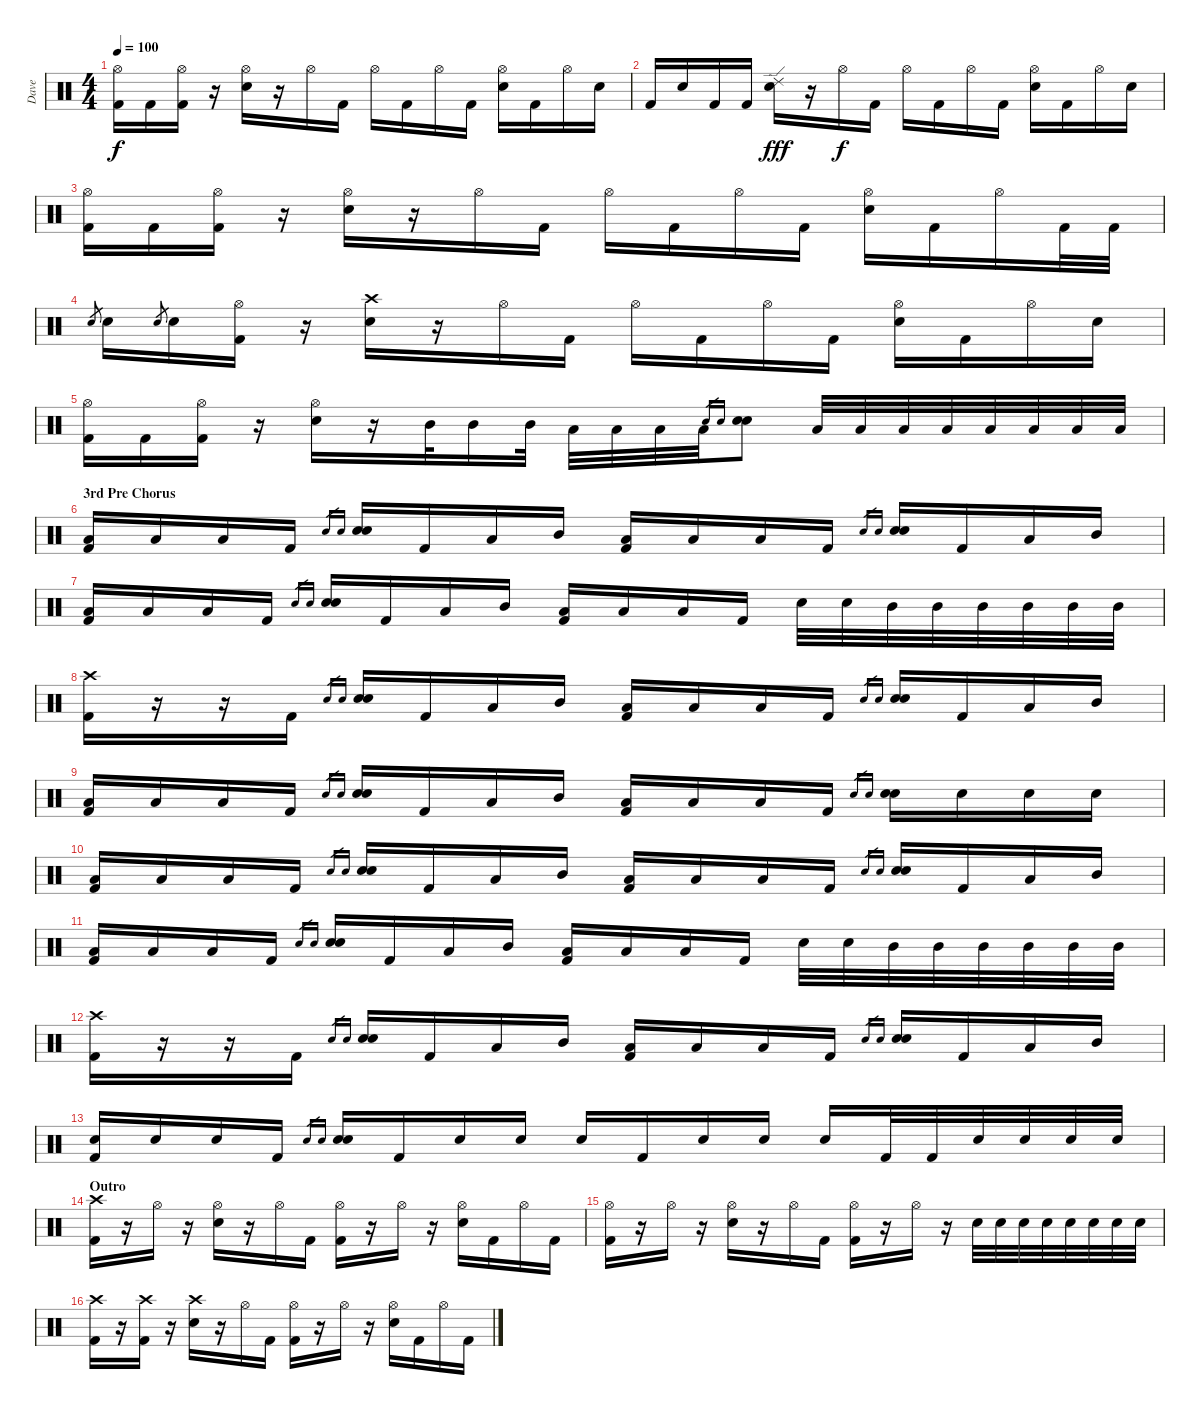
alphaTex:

\track ("Dave" "Dave") {instrument percussion}
\staff {score}
\articulation defaults
\ts (4 4)
\tempo 100
\clef neutral
\ks c
("Hi-Hat (open)" "Kick (hit) 2").16{dy f} "Kick (hit) 2".16 ("Hi-Hat (open)" "Kick (hit) 2").16 r.16 ("Hi-Hat (open)" "Electric Snare (hit)").16 r.16 "Hi-Hat (open)".16 "Kick (hit) 2".16 "Hi-Hat (open)".16 "Kick (hit) 2".16 "Hi-Hat (open)".16 "Kick (hit) 2".16 ("Hi-Hat (open)" "Electric Snare (hit)").16 "Kick (hit) 2".16 "Hi-Hat (open)".16 "Electric Snare (hit)".16 |
"Kick (hit) 2".16 "Electric Snare (hit)".16 "Kick (hit) 2".16 "Kick (hit) 2".16 ("Ride (edge) 2" "Electric Snare (hit)").16{dy fff} r.16 "Hi-Hat (open)".16{dy f} "Kick (hit) 2".16 "Hi-Hat (open)".16 "Kick (hit) 2".16 "Hi-Hat (open)".16 "Kick (hit) 2".16 ("Hi-Hat (open)" "Electric Snare (hit)").16 "Kick (hit) 2".16 "Hi-Hat (open)".16 "Electric Snare (hit)".16 |
("Hi-Hat (open)" "Kick (hit) 2").16 "Kick (hit) 2".16 ("Hi-Hat (open)" "Kick (hit) 2").16 r.16 ("Hi-Hat (open)" "Electric Snare (hit)").16 r.16 "Hi-Hat (open)".16 "Kick (hit) 2".16 "Hi-Hat (open)".16 "Kick (hit) 2".16 "Hi-Hat (open)".16 "Kick (hit) 2".16 ("Hi-Hat (open)" "Electric Snare (hit)").16 "Kick (hit) 2".16 "Hi-Hat (open)".16 "Kick (hit) 2".32 "Kick (hit) 2".32 |
"Electric Snare (hit)".8{gr} "Electric Snare (hit)".16 "Electric Snare (hit)".8{gr} "Electric Snare (hit)".16 ("Hi-Hat (open)" "Kick (hit) 2").16 r.16 ("Crash high (hit)" "Electric Snare (hit)").16 r.16 "Hi-Hat (open)".16 "Kick (hit) 2".16 "Hi-Hat (open)".16 "Kick (hit) 2".16 "Hi-Hat (open)".16 "Kick (hit) 2".16 ("Hi-Hat (open)" "Electric Snare (hit)").16 "Kick (hit) 2".16 "Hi-Hat (open)".16 "Electric Snare (hit)".16 |
("Hi-Hat (open)" "Kick (hit) 2").16 "Kick (hit) 2".16 ("Hi-Hat (open)" "Kick (hit) 2").16 r.16 ("Hi-Hat (open)" "Electric Snare (hit)").16 r.16 "Mid Tom (hit)".32 "Mid Tom (hit)".16 "Mid Tom (hit)".32 "Low Tom (hit)".32 "Low Tom (hit)".32 "Low Tom (hit)".32 "Low Tom (hit)".32 "Electric Snare (hit)".16{gr} "Electric Snare (hit)".16{gr} ("Electric Snare (hit)" "Electric Snare (hit)").8 "Low Tom (hit)".32 "Low Tom (hit)".32 "Low Tom (hit)".32 "Low Tom (hit)".32 "Low Floor Tom (hit)".32 "Low Floor Tom (hit)".32 "Low Floor Tom (hit)".32 "Low Floor Tom (hit)".32 |
\section ("" "3rd Pre Chorus")
("Low Floor Tom (hit)" "Kick (hit) 2").16 "Low Floor Tom (hit)".16 "Low Floor Tom (hit)".16 "Kick (hit) 2".16 "Electric Snare (hit)".16{gr} "Electric Snare (hit)".16{gr} ("Electric Snare (hit)" "Electric Snare (hit)").16 "Kick (hit) 2".16 "Low Floor Tom (hit)".16 "Mid Tom (hit)".16 ("Low Floor Tom (hit)" "Kick (hit) 2").16 "Low Floor Tom (hit)".16 "Low Floor Tom (hit)".16 "Kick (hit) 2".16 "Electric Snare (hit)".16{gr} "Electric Snare (hit)".16{gr} ("Electric Snare (hit)" "Electric Snare (hit)").16 "Kick (hit) 2".16 "Low Floor Tom (hit)".16 "Mid Tom (hit)".16 |
("Low Floor Tom (hit)" "Kick (hit) 2").16 "Low Floor Tom (hit)".16 "Low Floor Tom (hit)".16 "Kick (hit) 2".16 "Electric Snare (hit)".16{gr} "Electric Snare (hit)".16{gr} ("Electric Snare (hit)" "Electric Snare (hit)").16 "Kick (hit) 2".16 "Low Floor Tom (hit)".16 "Mid Tom (hit)".16 ("Low Floor Tom (hit)" "Kick (hit) 2").16 "Low Floor Tom (hit)".16 "Low Floor Tom (hit)".16 "Kick (hit) 2".16 "Electric Snare (hit)".32 "Electric Snare (hit)".32 "Mid Tom (hit)".32 "Mid Tom (hit)".32 "Mid Tom (hit)".32 "Mid Tom (hit)".32 "Mid Tom (hit)".32 "Mid Tom (hit)".32 |
("Crash high (hit)" "Kick (hit) 2").16 r.16 r.16 "Kick (hit) 2".16 "Electric Snare (hit)".16{gr} "Electric Snare (hit)".16{gr} ("Electric Snare (hit)" "Electric Snare (hit)").16 "Kick (hit) 2".16 "Low Floor Tom (hit)".16 "Mid Tom (hit)".16 ("Low Floor Tom (hit)" "Kick (hit) 2").16 "Low Floor Tom (hit)".16 "Low Floor Tom (hit)".16 "Kick (hit) 2".16 "Electric Snare (hit)".16{gr} "Electric Snare (hit)".16{gr} ("Electric Snare (hit)" "Electric Snare (hit)").16 "Kick (hit) 2".16 "Low Floor Tom (hit)".16 "Mid Tom (hit)".16 |
("Low Floor Tom (hit)" "Kick (hit) 2").16 "Low Floor Tom (hit)".16 "Low Floor Tom (hit)".16 "Kick (hit) 2".16 "Electric Snare (hit)".16{gr} "Electric Snare (hit)".16{gr} ("Electric Snare (hit)" "Electric Snare (hit)").16 "Kick (hit) 2".16 "Low Floor Tom (hit)".16 "Mid Tom (hit)".16 ("Low Floor Tom (hit)" "Kick (hit) 2").16 "Low Floor Tom (hit)".16 "Low Floor Tom (hit)".16 "Kick (hit) 2".16 "Electric Snare (hit)".16{gr} "Electric Snare (hit)".16{gr} ("Electric Snare (hit)" "Electric Snare (hit)").16 "Electric Snare (hit)".16 "Electric Snare (hit)".16 "Electric Snare (hit)".16 |
("Low Floor Tom (hit)" "Kick (hit) 2").16 "Low Floor Tom (hit)".16 "Low Floor Tom (hit)".16 "Kick (hit) 2".16 "Electric Snare (hit)".16{gr} "Electric Snare (hit)".16{gr} ("Electric Snare (hit)" "Electric Snare (hit)").16 "Kick (hit) 2".16 "Low Floor Tom (hit)".16 "Mid Tom (hit)".16 ("Low Floor Tom (hit)" "Kick (hit) 2").16 "Low Floor Tom (hit)".16 "Low Floor Tom (hit)".16 "Kick (hit) 2".16 "Electric Snare (hit)".16{gr} "Electric Snare (hit)".16{gr} ("Electric Snare (hit)" "Electric Snare (hit)").16 "Kick (hit) 2".16 "Low Floor Tom (hit)".16 "Mid Tom (hit)".16 |
("Low Floor Tom (hit)" "Kick (hit) 2").16 "Low Floor Tom (hit)".16 "Low Floor Tom (hit)".16 "Kick (hit) 2".16 "Electric Snare (hit)".16{gr} "Electric Snare (hit)".16{gr} ("Electric Snare (hit)" "Electric Snare (hit)").16 "Kick (hit) 2".16 "Low Floor Tom (hit)".16 "Mid Tom (hit)".16 ("Low Floor Tom (hit)" "Kick (hit) 2").16 "Low Floor Tom (hit)".16 "Low Floor Tom (hit)".16 "Kick (hit) 2".16 "Electric Snare (hit)".32 "Electric Snare (hit)".32 "Mid Tom (hit)".32 "Mid Tom (hit)".32 "Mid Tom (hit)".32 "Mid Tom (hit)".32 "Mid Tom (hit)".32 "Mid Tom (hit)".32 |
("Crash high (hit)" "Kick (hit) 2").16 r.16 r.16 "Kick (hit) 2".16 "Electric Snare (hit)".16{gr} "Electric Snare (hit)".16{gr} ("Electric Snare (hit)" "Electric Snare (hit)").16 "Kick (hit) 2".16 "Low Floor Tom (hit)".16 "Mid Tom (hit)".16 ("Low Floor Tom (hit)" "Kick (hit) 2").16 "Low Floor Tom (hit)".16 "Low Floor Tom (hit)".16 "Kick (hit) 2".16 "Electric Snare (hit)".16{gr} "Electric Snare (hit)".16{gr} ("Electric Snare (hit)" "Electric Snare (hit)").16 "Kick (hit) 2".16 "Low Floor Tom (hit)".16 "Mid Tom (hit)".16 |
("Electric Snare (hit)" "Kick (hit) 2").16 "Electric Snare (hit)".16 "Electric Snare (hit)".16 "Kick (hit) 2".16 "Electric Snare (hit)".16{gr} "Electric Snare (hit)".16{gr} ("Electric Snare (hit)" "Electric Snare (hit)").16 "Kick (hit) 2".16 "Electric Snare (hit)".16 "Electric Snare (hit)".16 "Electric Snare (hit)".16 "Kick (hit) 2".16 "Electric Snare (hit)".16 "Electric Snare (hit)".16 "Electric Snare (hit)".16 "Kick (hit) 2".32 "Kick (hit) 2".32 "Electric Snare (hit)".32 "Electric Snare (hit)".32 "Electric Snare (hit)".32 "Electric Snare (hit)".32 |
\section ("" "Outro")
("Crash high (hit)" "Kick (hit) 2").16 r.16 "Hi-Hat (open)".16 r.16 ("Hi-Hat (open)" "Electric Snare (hit)").16 r.16 "Hi-Hat (open)".16 "Kick (hit) 2".16 ("Hi-Hat (open)" "Kick (hit) 2").16 r.16 "Hi-Hat (open)".16 r.16 ("Hi-Hat (open)" "Electric Snare (hit)").16 "Kick (hit) 2".16 "Hi-Hat (open)".16 "Kick (hit) 2".16 |
("Hi-Hat (open)" "Kick (hit) 2").16 r.16 "Hi-Hat (open)".16 r.16 ("Hi-Hat (open)" "Electric Snare (hit)").16 r.16 "Hi-Hat (open)".16 "Kick (hit) 2".16 ("Hi-Hat (open)" "Kick (hit) 2").16 r.16 "Hi-Hat (open)".16 r.16 "Electric Snare (hit)".32 "Electric Snare (hit)".32 "Electric Snare (hit)".32 "Electric Snare (hit)".32 "Electric Snare (hit)".32 "Electric Snare (hit)".32 "Electric Snare (hit)".32 "Electric Snare (hit)".32 |
("Crash high (hit)" "Kick (hit) 2").16 r.16 ("Crash high (hit)" "Kick (hit) 2").16 r.16 ("Crash high (hit)" "Electric Snare (hit)").16 r.16 "Hi-Hat (open)".16 "Kick (hit) 2".16 ("Hi-Hat (open)" "Kick (hit) 2").16 r.16 "Hi-Hat (open)".16 r.16 ("Hi-Hat (open)" "Electric Snare (hit)").16 "Kick (hit) 2".16 "Hi-Hat (open)".16 "Kick (hit) 2".16
